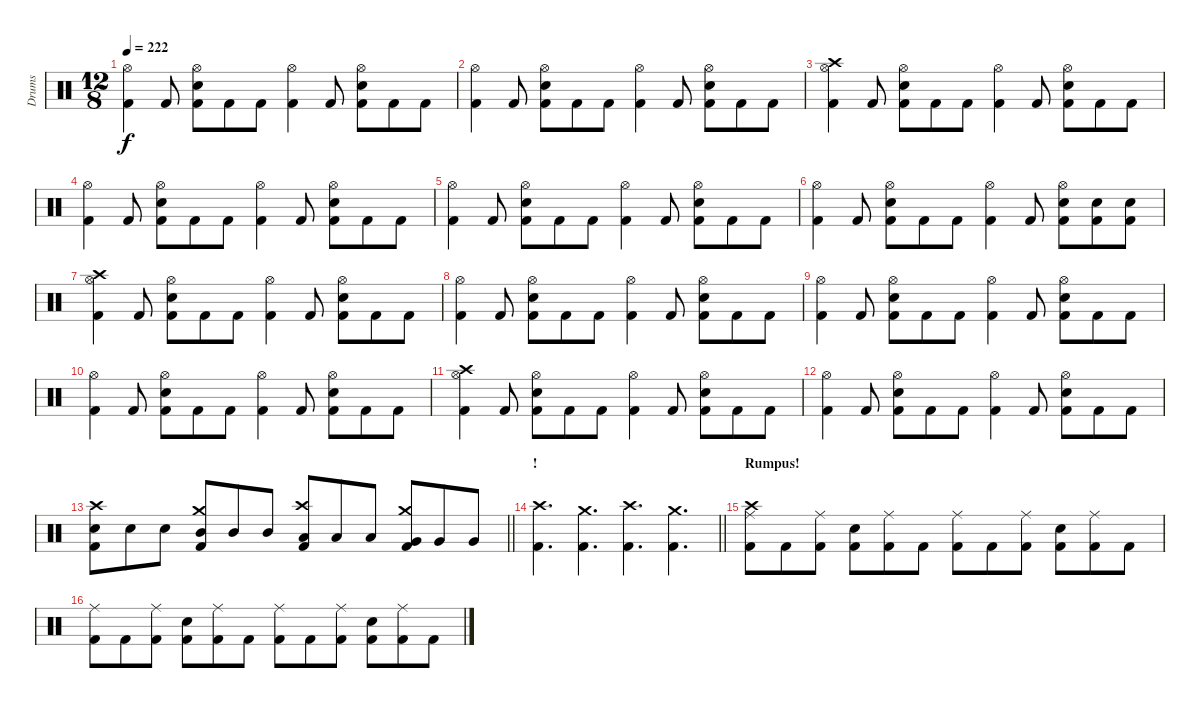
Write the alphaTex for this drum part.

\track ("Drums" "Drums") {instrument percussion}
\staff {score}
\articulation defaults
\ts (12 8)
\tempo 222
\clef neutral
\ks c
("Hi-Hat (open)" "Kick (hit) 2").4{dy f} "Kick (hit) 2".8 ("Hi-Hat (open)" "Snare (hit) 2" "Kick (hit) 2").8 "Kick (hit) 2".8 "Kick (hit) 2".8 ("Hi-Hat (open)" "Kick (hit) 2").4 "Kick (hit) 2".8 ("Hi-Hat (open)" "Snare (hit) 2" "Kick (hit) 2").8 "Kick (hit) 2".8 "Kick (hit) 2".8 |
("Hi-Hat (open)" "Kick (hit) 2").4 "Kick (hit) 2".8 ("Hi-Hat (open)" "Snare (hit) 2" "Kick (hit) 2").8 "Kick (hit) 2".8 "Kick (hit) 2".8 ("Hi-Hat (open)" "Kick (hit) 2").4 "Kick (hit) 2".8 ("Hi-Hat (open)" "Snare (hit) 2" "Kick (hit) 2").8 "Kick (hit) 2".8 "Kick (hit) 2".8 |
("Crash high (hit)" "Hi-Hat (open)" "Kick (hit) 2").4 "Kick (hit) 2".8 ("Hi-Hat (open)" "Snare (hit) 2" "Kick (hit) 2").8 "Kick (hit) 2".8 "Kick (hit) 2".8 ("Hi-Hat (open)" "Kick (hit) 2").4 "Kick (hit) 2".8 ("Hi-Hat (open)" "Snare (hit) 2" "Kick (hit) 2").8 "Kick (hit) 2".8 "Kick (hit) 2".8 |
("Hi-Hat (open)" "Kick (hit) 2").4 "Kick (hit) 2".8 ("Hi-Hat (open)" "Snare (hit) 2" "Kick (hit) 2").8 "Kick (hit) 2".8 "Kick (hit) 2".8 ("Hi-Hat (open)" "Kick (hit) 2").4 "Kick (hit) 2".8 ("Hi-Hat (open)" "Snare (hit) 2" "Kick (hit) 2").8 "Kick (hit) 2".8 "Kick (hit) 2".8 |
("Hi-Hat (open)" "Kick (hit) 2").4 "Kick (hit) 2".8 ("Hi-Hat (open)" "Snare (hit) 2" "Kick (hit) 2").8 "Kick (hit) 2".8 "Kick (hit) 2".8 ("Hi-Hat (open)" "Kick (hit) 2").4 "Kick (hit) 2".8 ("Hi-Hat (open)" "Snare (hit) 2" "Kick (hit) 2").8 "Kick (hit) 2".8 "Kick (hit) 2".8 |
("Hi-Hat (open)" "Kick (hit) 2").4 "Kick (hit) 2".8 ("Hi-Hat (open)" "Snare (hit) 2" "Kick (hit) 2").8 "Kick (hit) 2".8 "Kick (hit) 2".8 ("Hi-Hat (open)" "Kick (hit) 2").4 "Kick (hit) 2".8 ("Hi-Hat (open)" "Snare (hit) 2" "Kick (hit) 2").8 ("Snare (hit) 2" "Kick (hit) 2").8 ("Snare (hit) 2" "Kick (hit) 2").8 |
("Crash high (hit)" "Hi-Hat (open)" "Kick (hit) 2").4 "Kick (hit) 2".8 ("Hi-Hat (open)" "Snare (hit) 2" "Kick (hit) 2").8 "Kick (hit) 2".8 "Kick (hit) 2".8 ("Hi-Hat (open)" "Kick (hit) 2").4 "Kick (hit) 2".8 ("Hi-Hat (open)" "Snare (hit) 2" "Kick (hit) 2").8 "Kick (hit) 2".8 "Kick (hit) 2".8 |
("Hi-Hat (open)" "Kick (hit) 2").4 "Kick (hit) 2".8 ("Hi-Hat (open)" "Snare (hit) 2" "Kick (hit) 2").8 "Kick (hit) 2".8 "Kick (hit) 2".8 ("Hi-Hat (open)" "Kick (hit) 2").4 "Kick (hit) 2".8 ("Hi-Hat (open)" "Snare (hit) 2" "Kick (hit) 2").8 "Kick (hit) 2".8 "Kick (hit) 2".8 |
("Hi-Hat (open)" "Kick (hit) 2").4 "Kick (hit) 2".8 ("Hi-Hat (open)" "Snare (hit) 2" "Kick (hit) 2").8 "Kick (hit) 2".8 "Kick (hit) 2".8 ("Hi-Hat (open)" "Kick (hit) 2").4 "Kick (hit) 2".8 ("Hi-Hat (open)" "Snare (hit) 2" "Kick (hit) 2").8 "Kick (hit) 2".8 "Kick (hit) 2".8 |
("Hi-Hat (open)" "Kick (hit) 2").4 "Kick (hit) 2".8 ("Hi-Hat (open)" "Snare (hit) 2" "Kick (hit) 2").8 "Kick (hit) 2".8 "Kick (hit) 2".8 ("Hi-Hat (open)" "Kick (hit) 2").4 "Kick (hit) 2".8 ("Hi-Hat (open)" "Snare (hit) 2" "Kick (hit) 2").8 "Kick (hit) 2".8 "Kick (hit) 2".8 |
("Crash high (hit)" "Hi-Hat (open)" "Kick (hit) 2").4 "Kick (hit) 2".8 ("Hi-Hat (open)" "Snare (hit) 2" "Kick (hit) 2").8 "Kick (hit) 2".8 "Kick (hit) 2".8 ("Hi-Hat (open)" "Kick (hit) 2").4 "Kick (hit) 2".8 ("Hi-Hat (open)" "Snare (hit) 2" "Kick (hit) 2").8 "Kick (hit) 2".8 "Kick (hit) 2".8 |
("Hi-Hat (open)" "Kick (hit) 2").4 "Kick (hit) 2".8 ("Hi-Hat (open)" "Snare (hit) 2" "Kick (hit) 2").8 "Kick (hit) 2".8 "Kick (hit) 2".8 ("Hi-Hat (open)" "Kick (hit) 2").4 "Kick (hit) 2".8 ("Hi-Hat (open)" "Snare (hit) 2" "Kick (hit) 2").8 "Kick (hit) 2".8 "Kick (hit) 2".8 |
\barLineRight lightlight
("Crash high (hit)" "Snare (hit) 2" "Kick (hit) 2").8 "Snare (hit) 2".8 "Snare (hit) 2".8 ("Crash medium (hit)" "Mid Tom (hit)" "Kick (hit) 2").8 "Mid Tom (hit)".8 "Mid Tom (hit)".8 ("Crash high (hit)" "Low Tom (hit)" "Kick (hit) 2").8 "Low Tom (hit)".8 "Low Tom (hit)".8 ("Crash medium (hit)" "Very Low Tom (hit)" "Kick (hit) 2").8 "Very Low Tom (hit)".8 "Very Low Tom (hit)".8 |
\section ("" "!")
\barLineRight lightlight
("Crash high (hit)" "Kick (hit) 2").4{d} ("Crash medium (hit)" "Kick (hit) 2").4{d} ("Crash high (hit)" "Kick (hit) 2").4{d} ("Crash medium (hit)" "Kick (hit) 2").4{d} |
\section ("" "Rumpus!")
("Crash high (hit)" "Ride (middle)" "Kick (hit) 2").8 "Kick (hit) 2".8 ("Ride (middle)" "Kick (hit) 2").8 ("Snare (hit) 2" "Kick (hit) 2").8 ("Ride (middle)" "Kick (hit) 2").8 "Kick (hit) 2".8 ("Ride (middle)" "Kick (hit) 2").8 "Kick (hit) 2".8 ("Ride (middle)" "Kick (hit) 2").8 ("Snare (hit) 2" "Kick (hit) 2").8 ("Ride (middle)" "Kick (hit) 2").8 "Kick (hit) 2".8 |
("Ride (middle)" "Kick (hit) 2").8 "Kick (hit) 2".8 ("Ride (middle)" "Kick (hit) 2").8 ("Snare (hit) 2" "Kick (hit) 2").8 ("Ride (middle)" "Kick (hit) 2").8 "Kick (hit) 2".8 ("Ride (middle)" "Kick (hit) 2").8 "Kick (hit) 2".8 ("Ride (middle)" "Kick (hit) 2").8 ("Snare (hit) 2" "Kick (hit) 2").8 ("Ride (middle)" "Kick (hit) 2").8 "Kick (hit) 2".8
